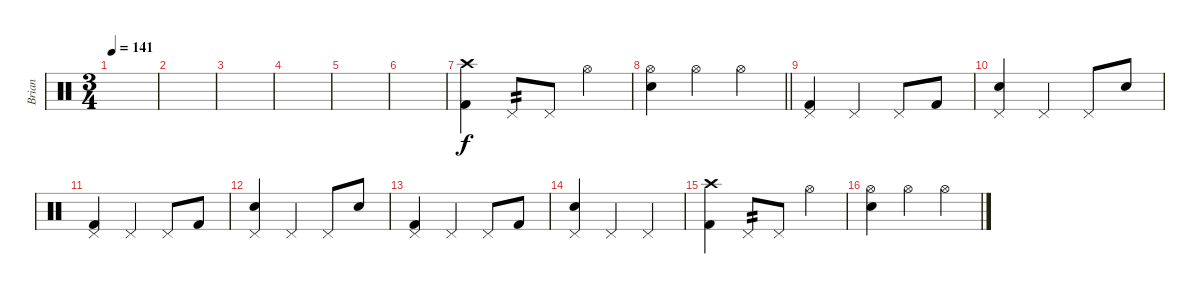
\track ("Brian" "Brian") {instrument percussion}
\staff {score}
\articulation defaults
\ts (3 4)
\tempo 141
\clef neutral
\ks c
|
|
|
|
|
|
("Crash high (hit)" "Kick (hit) 2").4 "Pedal Hi-Hat (hit)".8{tp 2} "Pedal Hi-Hat (hit)".8 "Hi-Hat (open)".4 |
\barLineRight lightlight
("Hi-Hat (open)" "Electric Snare (hit)").4 "Hi-Hat (open)".4 "Hi-Hat (open)".4 |
("Pedal Hi-Hat (hit)" "Kick (hit) 2").4 "Pedal Hi-Hat (hit)".4 "Pedal Hi-Hat (hit)".8 "Kick (hit) 2".8 |
("Pedal Hi-Hat (hit)" "Electric Snare (hit)").4 "Pedal Hi-Hat (hit)".4 "Pedal Hi-Hat (hit)".8 "Electric Snare (hit)".8 |
("Pedal Hi-Hat (hit)" "Kick (hit) 2").4 "Pedal Hi-Hat (hit)".4 "Pedal Hi-Hat (hit)".8 "Kick (hit) 2".8 |
("Pedal Hi-Hat (hit)" "Electric Snare (hit)").4 "Pedal Hi-Hat (hit)".4 "Pedal Hi-Hat (hit)".8 "Electric Snare (hit)".8 |
("Pedal Hi-Hat (hit)" "Kick (hit) 2").4 "Pedal Hi-Hat (hit)".4 "Pedal Hi-Hat (hit)".8 "Kick (hit) 2".8 |
("Pedal Hi-Hat (hit)" "Electric Snare (hit)").4 "Pedal Hi-Hat (hit)".4 "Pedal Hi-Hat (hit)".4 |
("Crash high (hit)" "Kick (hit) 2").4 "Pedal Hi-Hat (hit)".8{tp 2} "Pedal Hi-Hat (hit)".8 "Hi-Hat (open)".4 |
("Hi-Hat (open)" "Electric Snare (hit)").4 "Hi-Hat (open)".4 "Hi-Hat (open)".4
